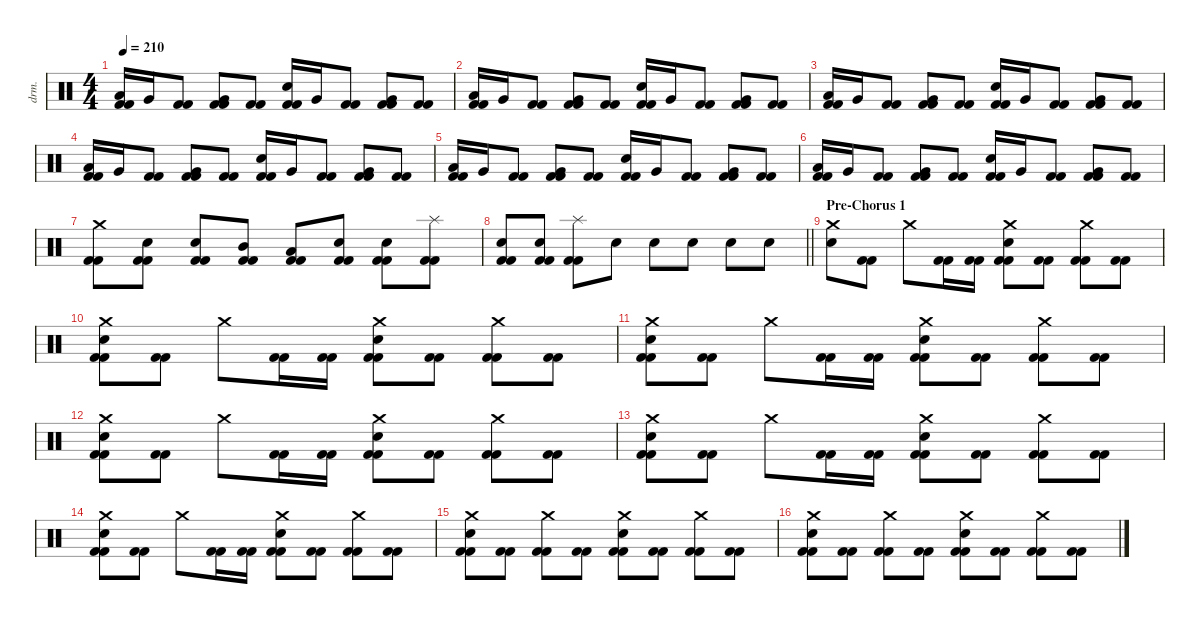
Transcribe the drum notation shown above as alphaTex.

\defaultSystemsLayout 4
\hideDynamics
\bracketExtendMode nobrackets
\otherSystemsTrackNameOrientation horizontal
\track ("Chris Adler" "drm.") {instrument percussion}
\staff {score}
\articulation defaults
\ts (4 4)
\tempo 210
\clef neutral
\ks c
("Low Tom (hit)" "Kick (hit) 2" "Kick (hit) 2").16{dy f} "Very Low Tom (hit)".16 ("Kick (hit) 2" "Kick (hit) 2").8 ("Very Low Tom (hit)" "Kick (hit) 2" "Kick (hit) 2").8 ("Kick (hit) 2" "Kick (hit) 2").8 ("Snare (hit) 2" "Kick (hit) 2" "Kick (hit) 2").16 "Very Low Tom (hit)".16 ("Kick (hit) 2" "Kick (hit) 2").8 ("Very Low Tom (hit)" "Kick (hit) 2" "Kick (hit) 2").8 ("Kick (hit) 2" "Kick (hit) 2").8 |
("Low Tom (hit)" "Kick (hit) 2" "Kick (hit) 2").16 "Very Low Tom (hit)".16 ("Kick (hit) 2" "Kick (hit) 2").8 ("Very Low Tom (hit)" "Kick (hit) 2" "Kick (hit) 2").8 ("Kick (hit) 2" "Kick (hit) 2").8 ("Snare (hit) 2" "Kick (hit) 2" "Kick (hit) 2").16 "Very Low Tom (hit)".16 ("Kick (hit) 2" "Kick (hit) 2").8 ("Very Low Tom (hit)" "Kick (hit) 2" "Kick (hit) 2").8 ("Kick (hit) 2" "Kick (hit) 2").8 |
("Low Tom (hit)" "Kick (hit) 2" "Kick (hit) 2").16 "Very Low Tom (hit)".16 ("Kick (hit) 2" "Kick (hit) 2").8 ("Very Low Tom (hit)" "Kick (hit) 2" "Kick (hit) 2").8 ("Kick (hit) 2" "Kick (hit) 2").8 ("Snare (hit) 2" "Kick (hit) 2" "Kick (hit) 2").16 "Very Low Tom (hit)".16 ("Kick (hit) 2" "Kick (hit) 2").8 ("Very Low Tom (hit)" "Kick (hit) 2" "Kick (hit) 2").8 ("Kick (hit) 2" "Kick (hit) 2").8 |
("Low Tom (hit)" "Kick (hit) 2" "Kick (hit) 2").16 "Very Low Tom (hit)".16 ("Kick (hit) 2" "Kick (hit) 2").8 ("Very Low Tom (hit)" "Kick (hit) 2" "Kick (hit) 2").8 ("Kick (hit) 2" "Kick (hit) 2").8 ("Snare (hit) 2" "Kick (hit) 2" "Kick (hit) 2").16 "Very Low Tom (hit)".16 ("Kick (hit) 2" "Kick (hit) 2").8 ("Very Low Tom (hit)" "Kick (hit) 2" "Kick (hit) 2").8 ("Kick (hit) 2" "Kick (hit) 2").8 |
("Low Tom (hit)" "Kick (hit) 2" "Kick (hit) 2").16 "Very Low Tom (hit)".16 ("Kick (hit) 2" "Kick (hit) 2").8 ("Very Low Tom (hit)" "Kick (hit) 2" "Kick (hit) 2").8 ("Kick (hit) 2" "Kick (hit) 2").8 ("Snare (hit) 2" "Kick (hit) 2" "Kick (hit) 2").16 "Very Low Tom (hit)".16 ("Kick (hit) 2" "Kick (hit) 2").8 ("Very Low Tom (hit)" "Kick (hit) 2" "Kick (hit) 2").8 ("Kick (hit) 2" "Kick (hit) 2").8 |
("Low Tom (hit)" "Kick (hit) 2" "Kick (hit) 2").16 "Very Low Tom (hit)".16 ("Kick (hit) 2" "Kick (hit) 2").8 ("Very Low Tom (hit)" "Kick (hit) 2" "Kick (hit) 2").8 ("Kick (hit) 2" "Kick (hit) 2").8 ("Snare (hit) 2" "Kick (hit) 2" "Kick (hit) 2").16 "Very Low Tom (hit)".16 ("Kick (hit) 2" "Kick (hit) 2").8 ("Very Low Tom (hit)" "Kick (hit) 2" "Kick (hit) 2").8 ("Kick (hit) 2" "Kick (hit) 2").8 |
("Crash medium (hit)" "Kick (hit) 2" "Kick (hit) 2").8 ("Snare (hit) 2" "Kick (hit) 2" "Kick (hit) 2").8 ("Snare (hit) 2" "Kick (hit) 2" "Kick (hit) 2").8 ("Mid Tom (hit)" "Kick (hit) 2" "Kick (hit) 2").8 ("Low Tom (hit)" "Kick (hit) 2" "Kick (hit) 2").8 ("Snare (hit) 2" "Kick (hit) 2" "Kick (hit) 2").8 ("Snare (hit) 2" "Kick (hit) 2" "Kick (hit) 2").8 ("Splash (hit)" "Kick (hit) 2" "Kick (hit) 2").8 |
\barLineRight lightlight
("Snare (hit) 2" "Kick (hit) 2" "Kick (hit) 2").8 ("Snare (hit) 2" "Kick (hit) 2" "Kick (hit) 2").8 ("Splash (hit)" "Kick (hit) 2" "Kick (hit) 2").8 "Snare (hit) 2".8 "Snare (hit) 2".8 "Snare (hit) 2".8 "Snare (hit) 2".8 "Snare (hit) 2".8 |
\section ("" "Pre-Chorus 1")
("Crash medium (hit)" "Snare (hit) 2").8 ("Kick (hit) 2" "Kick (hit) 2").8 "Crash medium (hit)".8 ("Kick (hit) 2" "Kick (hit) 2").16 ("Kick (hit) 2" "Kick (hit) 2").16 ("Crash medium (hit)" "Snare (hit) 2" "Kick (hit) 2" "Kick (hit) 2").8 ("Kick (hit) 2" "Kick (hit) 2").8 ("Crash medium (hit)" "Kick (hit) 2" "Kick (hit) 2").8 ("Kick (hit) 2" "Kick (hit) 2").8 |
("Crash medium (hit)" "Snare (hit) 2" "Kick (hit) 2" "Kick (hit) 2").8 ("Kick (hit) 2" "Kick (hit) 2").8 "Crash medium (hit)".8 ("Kick (hit) 2" "Kick (hit) 2").16 ("Kick (hit) 2" "Kick (hit) 2").16 ("Crash medium (hit)" "Snare (hit) 2" "Kick (hit) 2" "Kick (hit) 2").8 ("Kick (hit) 2" "Kick (hit) 2").8 ("Crash medium (hit)" "Kick (hit) 2" "Kick (hit) 2").8 ("Kick (hit) 2" "Kick (hit) 2").8 |
("Crash medium (hit)" "Snare (hit) 2" "Kick (hit) 2" "Kick (hit) 2").8 ("Kick (hit) 2" "Kick (hit) 2").8 "Crash medium (hit)".8 ("Kick (hit) 2" "Kick (hit) 2").16 ("Kick (hit) 2" "Kick (hit) 2").16 ("Crash medium (hit)" "Snare (hit) 2" "Kick (hit) 2" "Kick (hit) 2").8 ("Kick (hit) 2" "Kick (hit) 2").8 ("Crash medium (hit)" "Kick (hit) 2" "Kick (hit) 2").8 ("Kick (hit) 2" "Kick (hit) 2").8 |
("Crash medium (hit)" "Snare (hit) 2" "Kick (hit) 2" "Kick (hit) 2").8 ("Kick (hit) 2" "Kick (hit) 2").8 "Crash medium (hit)".8 ("Kick (hit) 2" "Kick (hit) 2").16 ("Kick (hit) 2" "Kick (hit) 2").16 ("Crash medium (hit)" "Snare (hit) 2" "Kick (hit) 2" "Kick (hit) 2").8 ("Kick (hit) 2" "Kick (hit) 2").8 ("Crash medium (hit)" "Kick (hit) 2" "Kick (hit) 2").8 ("Kick (hit) 2" "Kick (hit) 2").8 |
("Crash medium (hit)" "Snare (hit) 2" "Kick (hit) 2" "Kick (hit) 2").8 ("Kick (hit) 2" "Kick (hit) 2").8 "Crash medium (hit)".8 ("Kick (hit) 2" "Kick (hit) 2").16 ("Kick (hit) 2" "Kick (hit) 2").16 ("Crash medium (hit)" "Snare (hit) 2" "Kick (hit) 2" "Kick (hit) 2").8 ("Kick (hit) 2" "Kick (hit) 2").8 ("Crash medium (hit)" "Kick (hit) 2" "Kick (hit) 2").8 ("Kick (hit) 2" "Kick (hit) 2").8 |
("Crash medium (hit)" "Snare (hit) 2" "Kick (hit) 2" "Kick (hit) 2").8 ("Kick (hit) 2" "Kick (hit) 2").8 "Crash medium (hit)".8 ("Kick (hit) 2" "Kick (hit) 2").16 ("Kick (hit) 2" "Kick (hit) 2").16 ("Crash medium (hit)" "Snare (hit) 2" "Kick (hit) 2" "Kick (hit) 2").8 ("Kick (hit) 2" "Kick (hit) 2").8 ("Crash medium (hit)" "Kick (hit) 2" "Kick (hit) 2").8 ("Kick (hit) 2" "Kick (hit) 2").8 |
("Crash medium (hit)" "Snare (hit) 2" "Kick (hit) 2" "Kick (hit) 2").8 ("Kick (hit) 2" "Kick (hit) 2").8 ("Crash medium (hit)" "Kick (hit) 2" "Kick (hit) 2").8 ("Kick (hit) 2" "Kick (hit) 2").8 ("Crash medium (hit)" "Snare (hit) 2" "Kick (hit) 2" "Kick (hit) 2").8 ("Kick (hit) 2" "Kick (hit) 2").8 ("Crash medium (hit)" "Kick (hit) 2" "Kick (hit) 2").8 ("Kick (hit) 2" "Kick (hit) 2").8 |
("Crash medium (hit)" "Snare (hit) 2" "Kick (hit) 2" "Kick (hit) 2").8 ("Kick (hit) 2" "Kick (hit) 2").8 ("Crash medium (hit)" "Kick (hit) 2" "Kick (hit) 2").8 ("Kick (hit) 2" "Kick (hit) 2").8 ("Crash medium (hit)" "Snare (hit) 2" "Kick (hit) 2" "Kick (hit) 2").8 ("Kick (hit) 2" "Kick (hit) 2").8 ("Crash medium (hit)" "Kick (hit) 2" "Kick (hit) 2").8 ("Kick (hit) 2" "Kick (hit) 2").8
